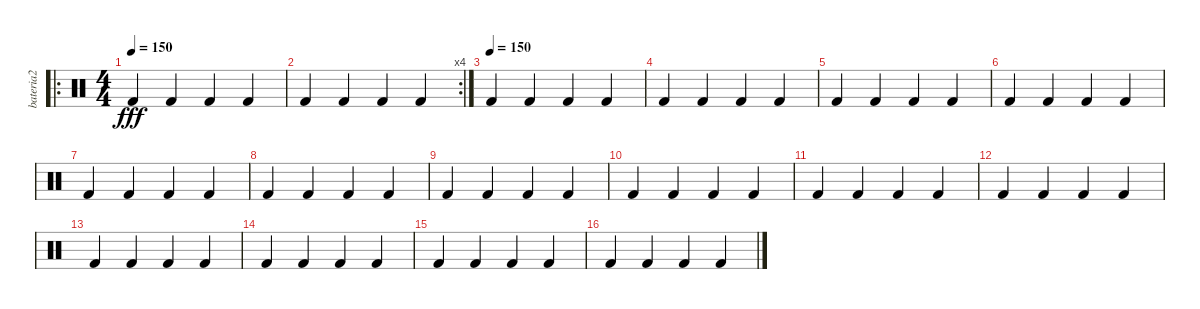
\track ("bateria2" "bateria2") {instrument percussion}
\staff {score}
\articulation defaults
\ro
\ts (4 4)
\tempo 150
\clef neutral
\ks c "Kick (hit) 2".4{dy fff} "Kick (hit) 2".4 "Kick (hit) 2".4 "Kick (hit) 2".4
|
\rc 4 "Kick (hit) 2".4 "Kick (hit) 2".4 "Kick (hit) 2".4 "Kick (hit) 2".4
|
\tempo (150)
"Kick (hit) 2".4 "Kick (hit) 2".4 "Kick (hit) 2".4 "Kick (hit) 2".4 |
"Kick (hit) 2".4 "Kick (hit) 2".4 "Kick (hit) 2".4 "Kick (hit) 2".4 |
"Kick (hit) 2".4 "Kick (hit) 2".4 "Kick (hit) 2".4 "Kick (hit) 2".4 |
"Kick (hit) 2".4 "Kick (hit) 2".4 "Kick (hit) 2".4 "Kick (hit) 2".4 |
"Kick (hit) 2".4 "Kick (hit) 2".4 "Kick (hit) 2".4 "Kick (hit) 2".4 |
"Kick (hit) 2".4 "Kick (hit) 2".4 "Kick (hit) 2".4 "Kick (hit) 2".4 |
"Kick (hit) 2".4 "Kick (hit) 2".4 "Kick (hit) 2".4 "Kick (hit) 2".4 |
"Kick (hit) 2".4 "Kick (hit) 2".4 "Kick (hit) 2".4 "Kick (hit) 2".4 |
"Kick (hit) 2".4 "Kick (hit) 2".4 "Kick (hit) 2".4 "Kick (hit) 2".4 |
"Kick (hit) 2".4 "Kick (hit) 2".4 "Kick (hit) 2".4 "Kick (hit) 2".4 |
"Kick (hit) 2".4 "Kick (hit) 2".4 "Kick (hit) 2".4 "Kick (hit) 2".4 |
"Kick (hit) 2".4 "Kick (hit) 2".4 "Kick (hit) 2".4 "Kick (hit) 2".4 |
"Kick (hit) 2".4 "Kick (hit) 2".4 "Kick (hit) 2".4 "Kick (hit) 2".4 |
"Kick (hit) 2".4 "Kick (hit) 2".4 "Kick (hit) 2".4 "Kick (hit) 2".4
